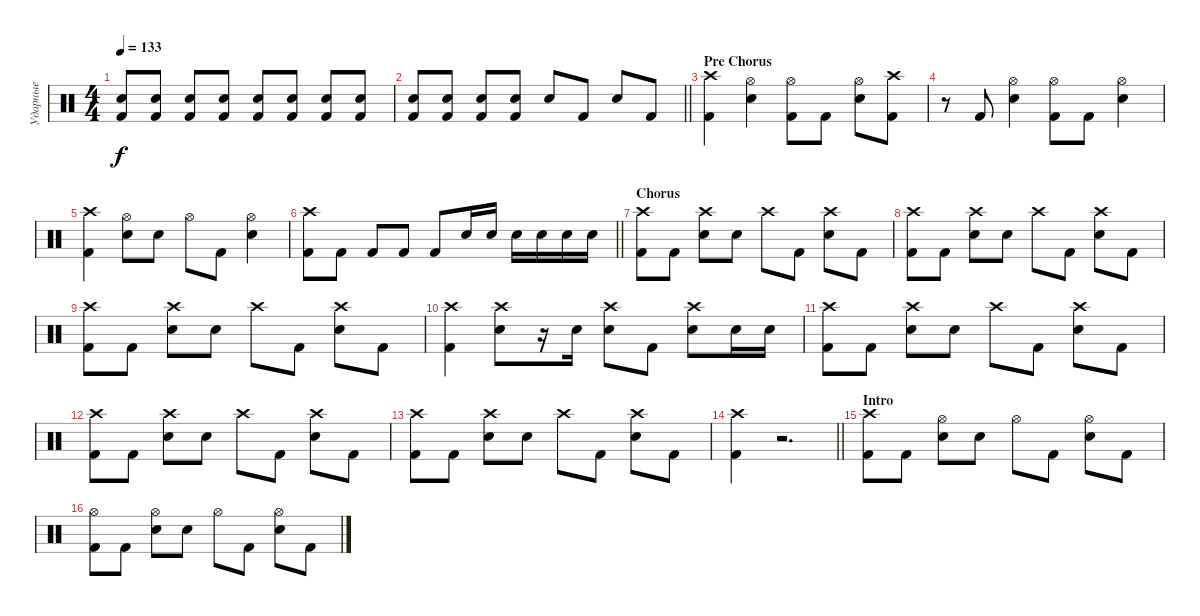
\track ("Ударные" "Ударные") {instrument percussion}
\staff {score}
\articulation defaults
\ts (4 4)
\tempo 133
\clef neutral
\ks c
("Electric Snare (hit)" "Kick (hit) 2").8{dy f} ("Electric Snare (hit)" "Kick (hit) 2").8 ("Electric Snare (hit)" "Kick (hit) 2").8 ("Electric Snare (hit)" "Kick (hit) 2").8 ("Electric Snare (hit)" "Kick (hit) 2").8 ("Electric Snare (hit)" "Kick (hit) 2").8 ("Electric Snare (hit)" "Kick (hit) 2").8 ("Electric Snare (hit)" "Kick (hit) 2").8 |
\barLineRight lightlight
("Electric Snare (hit)" "Kick (hit) 2").8 ("Electric Snare (hit)" "Kick (hit) 2").8 ("Electric Snare (hit)" "Kick (hit) 2").8 ("Electric Snare (hit)" "Kick (hit) 2").8 "Electric Snare (hit)".8 "Kick (hit) 2".8 "Electric Snare (hit)".8 "Kick (hit) 2".8 |
\section ("" "Pre Chorus")
("Crash high (hit)" "Kick (hit) 2").4 ("Hi-Hat (open)" "Electric Snare (hit)").4 ("Hi-Hat (open)" "Kick (hit) 2").8 "Kick (hit) 2".8 ("Hi-Hat (open)" "Electric Snare (hit)").8 ("Crash high (hit)" "Kick (hit) 2").8 |
r.8 "Kick (hit) 2".8 ("Hi-Hat (open)" "Electric Snare (hit)").4 ("Hi-Hat (open)" "Kick (hit) 2").8 "Kick (hit) 2".8 ("Hi-Hat (open)" "Electric Snare (hit)").4 |
("Crash high (hit)" "Kick (hit) 2").4 ("Hi-Hat (open)" "Electric Snare (hit)").8 "Electric Snare (hit)".8 "Hi-Hat (open)".8 "Kick (hit) 2".8 ("Hi-Hat (open)" "Electric Snare (hit)").4 |
\barLineRight lightlight
("Crash high (hit)" "Kick (hit) 2").8 "Kick (hit) 2".8 "Kick (hit) 2".8 "Kick (hit) 2".8 "Kick (hit) 2".8 "Electric Snare (hit)".16 "Electric Snare (hit)".16 "Electric Snare (hit)".16 "Electric Snare (hit)".16 "Electric Snare (hit)".16 "Electric Snare (hit)".16 |
\section ("" "Chorus")
("Crash high (hit)" "Kick (hit) 2").8 "Kick (hit) 2".8 ("Crash high (hit)" "Electric Snare (hit)").8 "Electric Snare (hit)".8 "Crash high (hit)".8 "Kick (hit) 2".8 ("Crash high (hit)" "Electric Snare (hit)").8 "Kick (hit) 2".8 |
("Crash high (hit)" "Kick (hit) 2").8 "Kick (hit) 2".8 ("Crash high (hit)" "Electric Snare (hit)").8 "Electric Snare (hit)".8 "Crash high (hit)".8 "Kick (hit) 2".8 ("Crash high (hit)" "Electric Snare (hit)").8 "Kick (hit) 2".8 |
("Crash high (hit)" "Kick (hit) 2").8 "Kick (hit) 2".8 ("Crash high (hit)" "Electric Snare (hit)").8 "Electric Snare (hit)".8 "Crash high (hit)".8 "Kick (hit) 2".8 ("Crash high (hit)" "Electric Snare (hit)").8 "Kick (hit) 2".8 |
("Crash high (hit)" "Kick (hit) 2").4 ("Crash high (hit)" "Electric Snare (hit)").8 r.16 "Electric Snare (hit)".16 ("Crash high (hit)" "Electric Snare (hit)").8 "Kick (hit) 2".8 ("Crash high (hit)" "Electric Snare (hit)").8 "Electric Snare (hit)".16 "Electric Snare (hit)".16 |
("Crash high (hit)" "Kick (hit) 2").8 "Kick (hit) 2".8 ("Crash high (hit)" "Electric Snare (hit)").8 "Electric Snare (hit)".8 "Crash high (hit)".8 "Kick (hit) 2".8 ("Crash high (hit)" "Electric Snare (hit)").8 "Kick (hit) 2".8 |
("Crash high (hit)" "Kick (hit) 2").8 "Kick (hit) 2".8 ("Crash high (hit)" "Electric Snare (hit)").8 "Electric Snare (hit)".8 "Crash high (hit)".8 "Kick (hit) 2".8 ("Crash high (hit)" "Electric Snare (hit)").8 "Kick (hit) 2".8 |
("Crash high (hit)" "Kick (hit) 2").8 "Kick (hit) 2".8 ("Crash high (hit)" "Electric Snare (hit)").8 "Electric Snare (hit)".8 "Crash high (hit)".8 "Kick (hit) 2".8 ("Crash high (hit)" "Electric Snare (hit)").8 "Kick (hit) 2".8 |
\barLineRight lightlight
("Crash high (hit)" "Kick (hit) 2").4 r.2{d} |
\section ("" "Intro")
("Crash high (hit)" "Kick (hit) 2").8 "Kick (hit) 2".8 ("Hi-Hat (open)" "Electric Snare (hit)").8 "Electric Snare (hit)".8 "Hi-Hat (open)".8 "Kick (hit) 2".8 ("Hi-Hat (open)" "Electric Snare (hit)").8 "Kick (hit) 2".8 |
("Hi-Hat (open)" "Kick (hit) 2").8 "Kick (hit) 2".8 ("Hi-Hat (open)" "Electric Snare (hit)").8 "Electric Snare (hit)".8 "Hi-Hat (open)".8 "Kick (hit) 2".8 ("Hi-Hat (open)" "Electric Snare (hit)").8 "Kick (hit) 2".8
